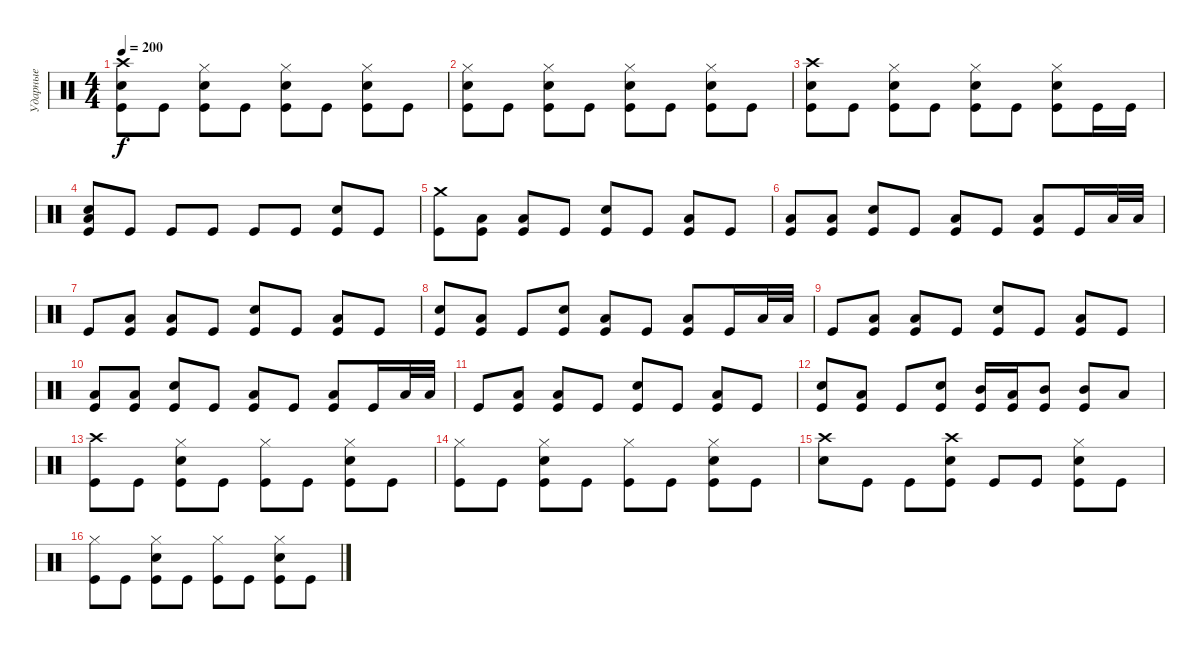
\track ("Ударные" "Ударные") {instrument percussion}
\staff {score}
\articulation defaults
\ts (4 4)
\tempo 200
\clef neutral
\ks c
("Crash high (hit)" "Electric Snare (hit)" "Kick (hit)").8{dy f} "Kick (hit)".8 ("Hi-Hat (closed)" "Electric Snare (hit)" "Kick (hit)").8 "Kick (hit)".8 ("Hi-Hat (closed)" "Electric Snare (hit)" "Kick (hit)").8 "Kick (hit)".8 ("Hi-Hat (closed)" "Electric Snare (hit)" "Kick (hit)").8 "Kick (hit)".8 |
("Hi-Hat (closed)" "Electric Snare (hit)" "Kick (hit)").8 "Kick (hit)".8 ("Hi-Hat (closed)" "Electric Snare (hit)" "Kick (hit)").8 "Kick (hit)".8 ("Hi-Hat (closed)" "Electric Snare (hit)" "Kick (hit)").8 "Kick (hit)".8 ("Hi-Hat (closed)" "Electric Snare (hit)" "Kick (hit)").8 "Kick (hit)".8 |
("Crash high (hit)" "Electric Snare (hit)" "Kick (hit)").8 "Kick (hit)".8 ("Hi-Hat (closed)" "Electric Snare (hit)" "Kick (hit)").8 "Kick (hit)".8 ("Hi-Hat (closed)" "Electric Snare (hit)" "Kick (hit)").8 "Kick (hit)".8 ("Hi-Hat (closed)" "Electric Snare (hit)" "Kick (hit)").8 "Kick (hit)".16 "Kick (hit)".16 |
("Low Tom (hit)" "Electric Snare (hit)" "Kick (hit)").8 "Kick (hit)".8 "Kick (hit)".8 "Kick (hit)".8 "Kick (hit)".8 "Kick (hit)".8 ("Electric Snare (hit)" "Kick (hit)").8 "Kick (hit)".8 |
("Crash medium (hit)" "Kick (hit)").8 ("Low Tom (hit)" "Kick (hit)").8 ("Low Tom (hit)" "Kick (hit)").8 "Kick (hit)".8 ("Electric Snare (hit)" "Kick (hit)").8 "Kick (hit)".8 ("Low Tom (hit)" "Kick (hit)").8 "Kick (hit)".8 |
("Low Tom (hit)" "Kick (hit)").8 ("Low Tom (hit)" "Kick (hit)").8 ("Electric Snare (hit)" "Kick (hit)").8 "Kick (hit)".8 ("Low Tom (hit)" "Kick (hit)").8 "Kick (hit)".8 ("Low Tom (hit)" "Kick (hit)").8 "Kick (hit)".16 "Low Tom (hit)".32 "Low Tom (hit)".32 |
"Kick (hit)".8 ("Low Tom (hit)" "Kick (hit)").8 ("Low Tom (hit)" "Kick (hit)").8 "Kick (hit)".8 ("Electric Snare (hit)" "Kick (hit)").8 "Kick (hit)".8 ("Low Tom (hit)" "Kick (hit)").8 "Kick (hit)".8 |
("Electric Snare (hit)" "Kick (hit)").8 ("Low Tom (hit)" "Kick (hit)").8 "Kick (hit)".8 ("Electric Snare (hit)" "Kick (hit)").8 ("Low Tom (hit)" "Kick (hit)").8 "Kick (hit)".8 ("Low Tom (hit)" "Kick (hit)").8 "Kick (hit)".16 "Low Tom (hit)".32 "Low Tom (hit)".32 |
"Kick (hit)".8 ("Low Tom (hit)" "Kick (hit)").8 ("Low Tom (hit)" "Kick (hit)").8 "Kick (hit)".8 ("Electric Snare (hit)" "Kick (hit)").8 "Kick (hit)".8 ("Low Tom (hit)" "Kick (hit)").8 "Kick (hit)".8 |
("Low Tom (hit)" "Kick (hit)").8 ("Low Tom (hit)" "Kick (hit)").8 ("Electric Snare (hit)" "Kick (hit)").8 "Kick (hit)".8 ("Low Tom (hit)" "Kick (hit)").8 "Kick (hit)".8 ("Low Tom (hit)" "Kick (hit)").8 "Kick (hit)".16 "Low Tom (hit)".32 "Low Tom (hit)".32 |
"Kick (hit)".8 ("Low Tom (hit)" "Kick (hit)").8 ("Low Tom (hit)" "Kick (hit)").8 "Kick (hit)".8 ("Electric Snare (hit)" "Kick (hit)").8 "Kick (hit)".8 ("Low Tom (hit)" "Kick (hit)").8 "Kick (hit)".8 |
("Electric Snare (hit)" "Kick (hit)").8 ("Low Tom (hit)" "Kick (hit)").8 "Kick (hit)".8 ("Electric Snare (hit)" "Kick (hit)").8 ("Mid Tom (hit)" "Kick (hit)").16 ("Low Tom (hit)" "Kick (hit)").16 ("Mid Tom (hit)" "Kick (hit)").8 ("Mid Tom (hit)" "Kick (hit)").8 "Low Tom (hit)".8 |
("Crash high (hit)" "Kick (hit)").8 "Kick (hit)".8 ("Hi-Hat (closed)" "Electric Snare (hit)" "Kick (hit)").8 "Kick (hit)".8 ("Hi-Hat (closed)" "Kick (hit)").8 "Kick (hit)".8 ("Hi-Hat (closed)" "Electric Snare (hit)" "Kick (hit)").8 "Kick (hit)".8 |
("Hi-Hat (closed)" "Kick (hit)").8 "Kick (hit)".8 ("Hi-Hat (closed)" "Electric Snare (hit)" "Kick (hit)").8 "Kick (hit)".8 ("Hi-Hat (closed)" "Kick (hit)").8 "Kick (hit)".8 ("Hi-Hat (closed)" "Electric Snare (hit)" "Kick (hit)").8 "Kick (hit)".8 |
("Crash high (hit)" "Electric Snare (hit)").8 "Kick (hit)".8 "Kick (hit)".8 ("Crash high (hit)" "Electric Snare (hit)" "Kick (hit)").8 "Kick (hit)".8 "Kick (hit)".8 ("Hi-Hat (closed)" "Electric Snare (hit)" "Kick (hit)").8 "Kick (hit)".8 |
("Hi-Hat (closed)" "Kick (hit)").8 "Kick (hit)".8 ("Hi-Hat (closed)" "Electric Snare (hit)" "Kick (hit)").8 "Kick (hit)".8 ("Hi-Hat (closed)" "Kick (hit)").8 "Kick (hit)".8 ("Hi-Hat (closed)" "Electric Snare (hit)" "Kick (hit)").8 "Kick (hit)".8
